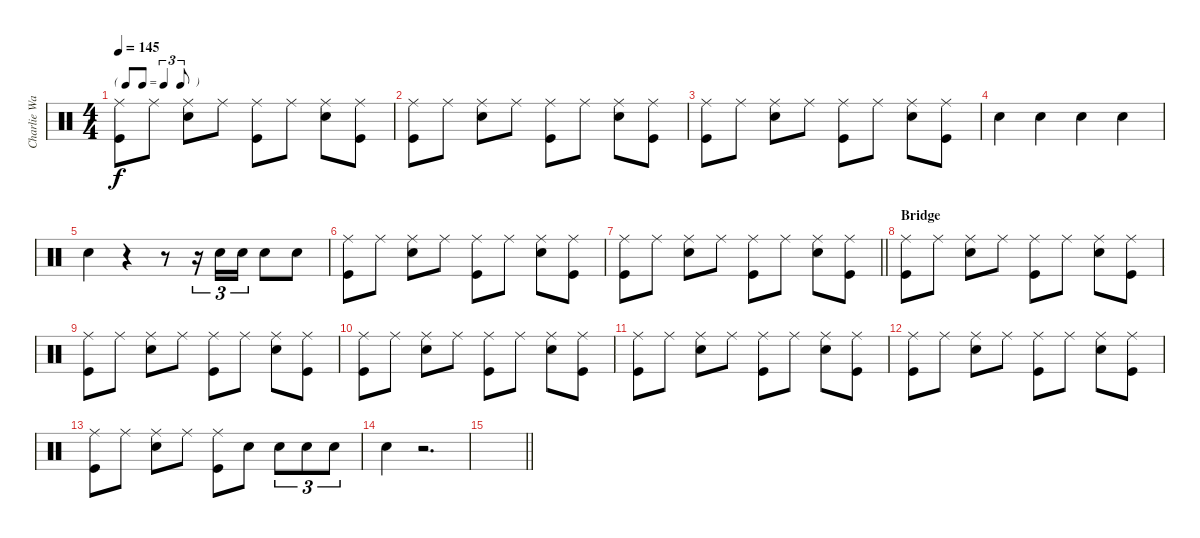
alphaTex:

\track ("Charlie Watts" "Charlie Wa") {instrument percussion}
\staff {score}
\articulation defaults
\ts (4 4)
\tf triplet8th
\tempo 145
\clef neutral
\ks c
("Ride (middle)" "Kick (hit)").8{dy f} "Ride (middle)".8 ("Ride (middle)" "Snare (hit) 2").8 "Ride (middle)".8 ("Ride (middle)" "Kick (hit)").8 "Ride (middle)".8 ("Ride (middle)" "Snare (hit) 2").8 ("Ride (middle)" "Kick (hit)").8 |
("Ride (middle)" "Kick (hit)").8 "Ride (middle)".8 ("Ride (middle)" "Snare (hit) 2").8 "Ride (middle)".8 ("Ride (middle)" "Kick (hit)").8 "Ride (middle)".8 ("Ride (middle)" "Snare (hit) 2").8 ("Ride (middle)" "Kick (hit)").8 |
("Ride (middle)" "Kick (hit)").8 "Ride (middle)".8 ("Ride (middle)" "Snare (hit) 2").8 "Ride (middle)".8 ("Ride (middle)" "Kick (hit)").8 "Ride (middle)".8 ("Ride (middle)" "Snare (hit) 2").8 ("Ride (middle)" "Kick (hit)").8 |
"Snare (hit) 2".4 "Snare (hit) 2".4 "Snare (hit) 2".4 "Snare (hit) 2".4 |
"Snare (hit) 2".4 r.4 r.8 r.16{tu (3 2)} "Snare (hit) 2".16{tu (3 2)} "Snare (hit) 2".16{tu (3 2)} "Snare (hit) 2".8 "Snare (hit) 2".8 |
("Ride (middle)" "Kick (hit)").8 "Ride (middle)".8 ("Ride (middle)" "Snare (hit) 2").8 "Ride (middle)".8 ("Ride (middle)" "Kick (hit)").8 "Ride (middle)".8 ("Ride (middle)" "Snare (hit) 2").8 ("Ride (middle)" "Kick (hit)").8 |
\barLineRight lightlight
("Ride (middle)" "Kick (hit)").8 "Ride (middle)".8 ("Ride (middle)" "Snare (hit) 2").8 "Ride (middle)".8 ("Ride (middle)" "Kick (hit)").8 "Ride (middle)".8 ("Ride (middle)" "Snare (hit) 2").8 ("Ride (middle)" "Kick (hit)").8 |
\section ("" "Bridge")
("Ride (middle)" "Kick (hit)").8 "Ride (middle)".8 ("Ride (middle)" "Snare (hit) 2").8 "Ride (middle)".8 ("Ride (middle)" "Kick (hit)").8 "Ride (middle)".8 ("Ride (middle)" "Snare (hit) 2").8 ("Ride (middle)" "Kick (hit)").8 |
("Ride (middle)" "Kick (hit)").8 "Ride (middle)".8 ("Ride (middle)" "Snare (hit) 2").8 "Ride (middle)".8 ("Ride (middle)" "Kick (hit)").8 "Ride (middle)".8 ("Ride (middle)" "Snare (hit) 2").8 ("Ride (middle)" "Kick (hit)").8 |
("Ride (middle)" "Kick (hit)").8 "Ride (middle)".8 ("Ride (middle)" "Snare (hit) 2").8 "Ride (middle)".8 ("Ride (middle)" "Kick (hit)").8 "Ride (middle)".8 ("Ride (middle)" "Snare (hit) 2").8 ("Ride (middle)" "Kick (hit)").8 |
("Ride (middle)" "Kick (hit)").8 "Ride (middle)".8 ("Ride (middle)" "Snare (hit) 2").8 "Ride (middle)".8 ("Ride (middle)" "Kick (hit)").8 "Ride (middle)".8 ("Ride (middle)" "Snare (hit) 2").8 ("Ride (middle)" "Kick (hit)").8 |
("Ride (middle)" "Kick (hit)").8 "Ride (middle)".8 ("Ride (middle)" "Snare (hit) 2").8 "Ride (middle)".8 ("Ride (middle)" "Kick (hit)").8 "Ride (middle)".8 ("Ride (middle)" "Snare (hit) 2").8 ("Ride (middle)" "Kick (hit)").8 |
("Ride (middle)" "Kick (hit)").8 "Ride (middle)".8 ("Ride (middle)" "Snare (hit) 2").8 "Ride (middle)".8 ("Ride (middle)" "Kick (hit)").8 "Snare (hit) 2".8 "Snare (hit) 2".8{tu (3 2)} "Snare (hit) 2".8{tu (3 2)} "Snare (hit) 2".8{tu (3 2)} |
"Snare (hit) 2".4 r.2{d} |
\barLineRight lightlight
